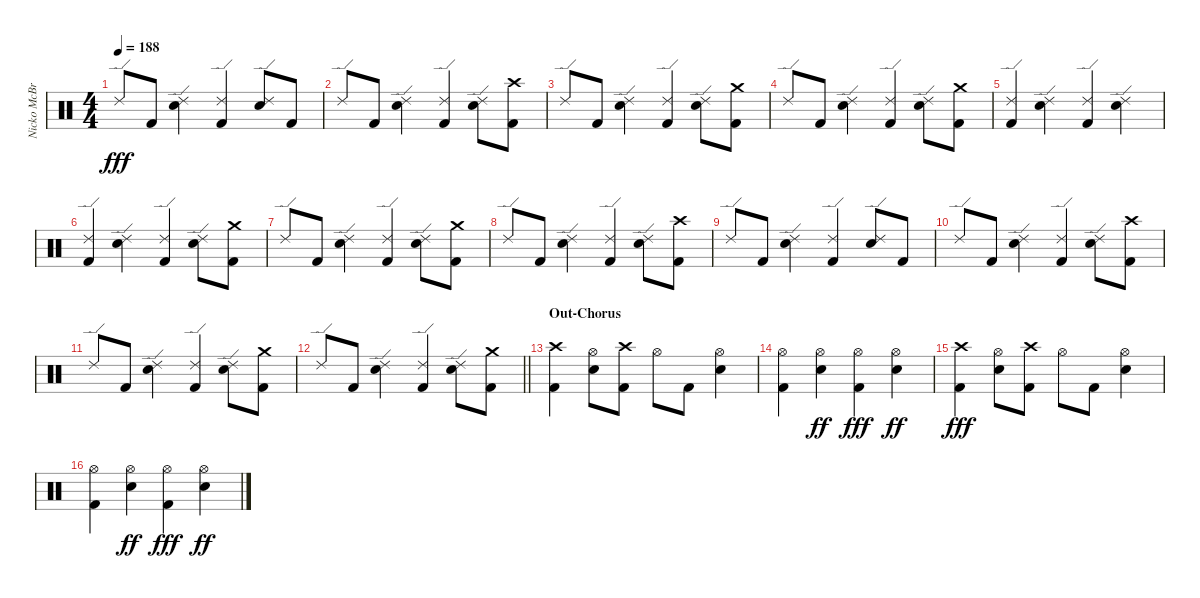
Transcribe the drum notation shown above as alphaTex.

\track ("Nicko McBrain" "Nicko McBr") {instrument percussion}
\staff {score}
\articulation defaults
\ts (4 4)
\tempo 188
\clef neutral
\ks c "Ride (edge) 2".8{dy fff} "Kick (hit) 2".8
("Ride (edge) 2" "Electric Snare (hit)").4 ("Ride (edge) 2" "Kick (hit) 2").4 ("Ride (edge) 2" "Electric Snare (hit)").8 "Kick (hit) 2".8 |
"Ride (edge) 2".8 "Kick (hit) 2".8 ("Ride (edge) 2" "Electric Snare (hit)").4 ("Ride (edge) 2" "Kick (hit) 2").4 ("Ride (edge) 2" "Electric Snare (hit)").8 ("Crash high (hit)" "Kick (hit) 2").8 |
"Ride (edge) 2".8 "Kick (hit) 2".8 ("Ride (edge) 2" "Electric Snare (hit)").4 ("Ride (edge) 2" "Kick (hit) 2").4 ("Ride (edge) 2" "Electric Snare (hit)").8 ("Crash medium (hit)" "Kick (hit) 2").8 |
"Ride (edge) 2".8 "Kick (hit) 2".8 ("Ride (edge) 2" "Electric Snare (hit)").4 ("Ride (edge) 2" "Kick (hit) 2").4 ("Ride (edge) 2" "Electric Snare (hit)").8 ("Crash medium (hit)" "Kick (hit) 2").8 |
("Ride (edge) 2" "Kick (hit) 2").4 ("Ride (edge) 2" "Electric Snare (hit)").4 ("Ride (edge) 2" "Kick (hit) 2").4 ("Ride (edge) 2" "Electric Snare (hit)").4 |
("Ride (edge) 2" "Kick (hit) 2").4 ("Ride (edge) 2" "Electric Snare (hit)").4 ("Ride (edge) 2" "Kick (hit) 2").4 ("Ride (edge) 2" "Electric Snare (hit)").8 ("Crash medium (hit)" "Kick (hit) 2").8 |
"Ride (edge) 2".8 "Kick (hit) 2".8 ("Ride (edge) 2" "Electric Snare (hit)").4 ("Ride (edge) 2" "Kick (hit) 2").4 ("Ride (edge) 2" "Electric Snare (hit)").8 ("Crash medium (hit)" "Kick (hit) 2").8 |
"Ride (edge) 2".8 "Kick (hit) 2".8 ("Ride (edge) 2" "Electric Snare (hit)").4 ("Ride (edge) 2" "Kick (hit) 2").4 ("Ride (edge) 2" "Electric Snare (hit)").8 ("Crash high (hit)" "Kick (hit) 2").8 |
"Ride (edge) 2".8 "Kick (hit) 2".8 ("Ride (edge) 2" "Electric Snare (hit)").4 ("Ride (edge) 2" "Kick (hit) 2").4 ("Ride (edge) 2" "Electric Snare (hit)").8 "Kick (hit) 2".8 |
"Ride (edge) 2".8 "Kick (hit) 2".8 ("Ride (edge) 2" "Electric Snare (hit)").4 ("Ride (edge) 2" "Kick (hit) 2").4 ("Ride (edge) 2" "Electric Snare (hit)").8 ("Crash high (hit)" "Kick (hit) 2").8 |
"Ride (edge) 2".8 "Kick (hit) 2".8 ("Ride (edge) 2" "Electric Snare (hit)").4 ("Ride (edge) 2" "Kick (hit) 2").4 ("Ride (edge) 2" "Electric Snare (hit)").8 ("Crash medium (hit)" "Kick (hit) 2").8 |
\barLineRight lightlight "Ride (edge) 2".8 "Kick (hit) 2".8
("Ride (edge) 2" "Electric Snare (hit)").4 ("Ride (edge) 2" "Kick (hit) 2").4 ("Ride (edge) 2" "Electric Snare (hit)").8 ("Crash medium (hit)" "Kick (hit) 2").8 |
\section ("" "Out-Chorus")
("Crash high (hit)" "Kick (hit) 2").4 ("Hi-Hat (open)" "Electric Snare (hit)").8 ("Crash high (hit)" "Kick (hit) 2").8 "Hi-Hat (open)".8 "Kick (hit) 2".8 ("Hi-Hat (open)" "Electric Snare (hit)").4 |
("Hi-Hat (open)" "Kick (hit) 2").4 ("Hi-Hat (open)" "Electric Snare (hit)").4{dy ff} ("Hi-Hat (open)" "Kick (hit) 2").4{dy fff} ("Hi-Hat (open)" "Electric Snare (hit)").4{dy ff} |
("Crash high (hit)" "Kick (hit) 2").4{dy fff} ("Hi-Hat (open)" "Electric Snare (hit)").8 ("Crash high (hit)" "Kick (hit) 2").8 "Hi-Hat (open)".8 "Kick (hit) 2".8 ("Hi-Hat (open)" "Electric Snare (hit)").4 |
("Hi-Hat (open)" "Kick (hit) 2").4 ("Hi-Hat (open)" "Electric Snare (hit)").4{dy ff} ("Hi-Hat (open)" "Kick (hit) 2").4{dy fff} ("Hi-Hat (open)" "Electric Snare (hit)").4{dy ff}
